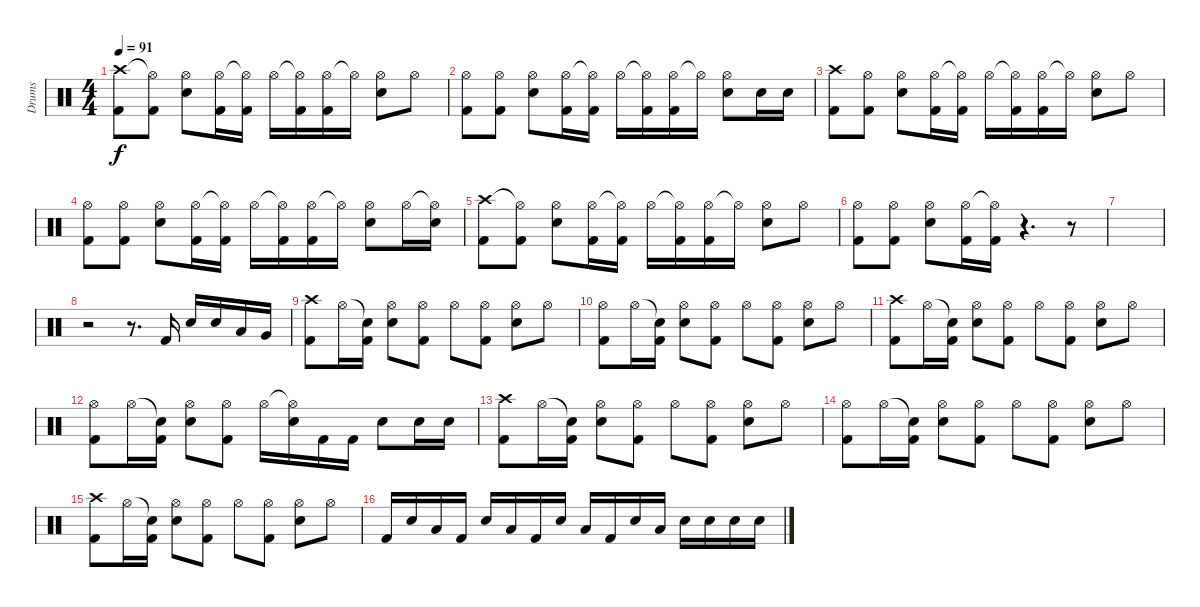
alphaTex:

\track ("Drums" "Drums") {instrument percussion}
\staff {score}
\articulation defaults
\ts (4 4)
\tempo 91
\clef neutral
\ks c
("Crash high (hit)" "Kick (hit) 2").8{dy f} ("Hi-Hat (open)"{t} "Kick (hit) 2").8 ("Hi-Hat (open)" "Electric Snare (hit)").8 ("Hi-Hat (open)" "Kick (hit) 2").16 ("Hi-Hat (open)"{t} "Kick (hit) 2").16 "Hi-Hat (open)".16 ("Hi-Hat (open)"{t} "Kick (hit) 2").16 ("Hi-Hat (open)" "Kick (hit) 2").16 "Hi-Hat (open)"{t}.16 ("Hi-Hat (open)" "Electric Snare (hit)").8 "Hi-Hat (open)".8 |
("Hi-Hat (open)" "Kick (hit) 2").8 ("Hi-Hat (open)" "Kick (hit) 2").8 ("Hi-Hat (open)" "Electric Snare (hit)").8 ("Hi-Hat (open)" "Kick (hit) 2").16 ("Hi-Hat (open)"{t} "Kick (hit) 2").16 "Hi-Hat (open)".16 ("Hi-Hat (open)"{t} "Kick (hit) 2").16 ("Hi-Hat (open)" "Kick (hit) 2").16 "Hi-Hat (open)"{t}.16 ("Hi-Hat (open)" "Electric Snare (hit)").8 "Electric Snare (hit)".16 "Electric Snare (hit)".16 |
("Crash high (hit)" "Kick (hit) 2").8 ("Hi-Hat (open)" "Kick (hit) 2").8 ("Hi-Hat (open)" "Electric Snare (hit)").8 ("Hi-Hat (open)" "Kick (hit) 2").16 ("Hi-Hat (open)"{t} "Kick (hit) 2").16 "Hi-Hat (open)".16 ("Hi-Hat (open)"{t} "Kick (hit) 2").16 ("Hi-Hat (open)" "Kick (hit) 2").16 "Hi-Hat (open)"{t}.16 ("Hi-Hat (open)" "Electric Snare (hit)").8 "Hi-Hat (open)".8 |
("Hi-Hat (open)" "Kick (hit) 2").8 ("Hi-Hat (open)" "Kick (hit) 2").8 ("Hi-Hat (open)" "Electric Snare (hit)").8 ("Hi-Hat (open)" "Kick (hit) 2").16 ("Hi-Hat (open)"{t} "Kick (hit) 2").16 "Hi-Hat (open)".16 ("Hi-Hat (open)"{t} "Kick (hit) 2").16 ("Hi-Hat (open)" "Kick (hit) 2").16 "Hi-Hat (open)"{t}.16 ("Hi-Hat (open)" "Electric Snare (hit)").8 "Hi-Hat (open)".16 ("Hi-Hat (open)"{t} "Electric Snare (hit)").16 |
("Crash high (hit)" "Kick (hit) 2").8 ("Hi-Hat (open)"{t} "Kick (hit) 2").8 ("Hi-Hat (open)" "Electric Snare (hit)").8 ("Hi-Hat (open)" "Kick (hit) 2").16 ("Hi-Hat (open)"{t} "Kick (hit) 2").16 "Hi-Hat (open)".16 ("Hi-Hat (open)"{t} "Kick (hit) 2").16 ("Hi-Hat (open)" "Kick (hit) 2").16 "Hi-Hat (open)"{t}.16 ("Hi-Hat (open)" "Electric Snare (hit)").8 "Hi-Hat (open)".8 |
("Hi-Hat (open)" "Kick (hit) 2").8 ("Hi-Hat (open)" "Kick (hit) 2").8 ("Hi-Hat (open)" "Electric Snare (hit)").8 ("Hi-Hat (open)" "Kick (hit) 2").16 ("Hi-Hat (open)"{t} "Kick (hit) 2").16 r.4{d} r.8 |
|
r.2 r.8{d} "Kick (hit) 2".16 "Electric Snare (hit)".16 "Electric Snare (hit)".16 "Low Tom (hit)".16 "Very Low Tom (hit)".16 |
("Crash high (hit)" "Kick (hit) 2").8 "Hi-Hat (open)".16 ("Snare (hit)"{t} "Kick (hit) 2").16 ("Hi-Hat (open)" "Electric Snare (hit)").8 ("Hi-Hat (open)" "Kick (hit) 2").8 "Hi-Hat (open)".8 ("Hi-Hat (open)" "Kick (hit) 2").8 ("Hi-Hat (open)" "Electric Snare (hit)").8 "Hi-Hat (open)".8 |
("Hi-Hat (open)" "Kick (hit) 2").8 "Hi-Hat (open)".16 ("Snare (hit)"{t} "Kick (hit) 2").16 ("Hi-Hat (open)" "Electric Snare (hit)").8 ("Hi-Hat (open)" "Kick (hit) 2").8 "Hi-Hat (open)".8 ("Hi-Hat (open)" "Kick (hit) 2").8 ("Hi-Hat (open)" "Electric Snare (hit)").8 "Hi-Hat (open)".8 |
("Crash high (hit)" "Kick (hit) 2").8 "Hi-Hat (open)".16 ("Snare (hit)"{t} "Kick (hit) 2").16 ("Hi-Hat (open)" "Electric Snare (hit)").8 ("Hi-Hat (open)" "Kick (hit) 2").8 "Hi-Hat (open)".8 ("Hi-Hat (open)" "Kick (hit) 2").8 ("Hi-Hat (open)" "Electric Snare (hit)").8 "Hi-Hat (open)".8 |
("Hi-Hat (open)" "Kick (hit) 2").8 "Hi-Hat (open)".16 ("Snare (hit)"{t} "Kick (hit) 2").16 ("Hi-Hat (open)" "Electric Snare (hit)").8 ("Hi-Hat (open)" "Kick (hit) 2").8 "Hi-Hat (open)".16 ("Hi-Hat (open)"{t} "Electric Snare (hit)").16 "Kick (hit) 2".16 "Kick (hit) 2".16 "Electric Snare (hit)".8 "Electric Snare (hit)".16 "Electric Snare (hit)".16 |
("Crash high (hit)" "Kick (hit) 2").8 "Hi-Hat (open)".16 ("Snare (hit)"{t} "Kick (hit) 2").16 ("Hi-Hat (open)" "Electric Snare (hit)").8 ("Hi-Hat (open)" "Kick (hit) 2").8 "Hi-Hat (open)".8 ("Hi-Hat (open)" "Kick (hit) 2").8 ("Hi-Hat (open)" "Electric Snare (hit)").8 "Hi-Hat (open)".8 |
("Hi-Hat (open)" "Kick (hit) 2").8 "Hi-Hat (open)".16 ("Snare (hit)"{t} "Kick (hit) 2").16 ("Hi-Hat (open)" "Electric Snare (hit)").8 ("Hi-Hat (open)" "Kick (hit) 2").8 "Hi-Hat (open)".8 ("Hi-Hat (open)" "Kick (hit) 2").8 ("Hi-Hat (open)" "Electric Snare (hit)").8 "Hi-Hat (open)".8 |
("Crash high (hit)" "Kick (hit) 2").8 "Hi-Hat (open)".16 ("Snare (hit)"{t} "Kick (hit) 2").16 ("Hi-Hat (open)" "Electric Snare (hit)").8 ("Hi-Hat (open)" "Kick (hit) 2").8 "Hi-Hat (open)".8 ("Hi-Hat (open)" "Kick (hit) 2").8 ("Hi-Hat (open)" "Electric Snare (hit)").8 "Hi-Hat (open)".8 |
"Kick (hit) 2".16 "Electric Snare (hit)".16 "Low Tom (hit)".16 "Kick (hit) 2".16 "Electric Snare (hit)".16 "Low Tom (hit)".16 "Kick (hit) 2".16 "Electric Snare (hit)".16 "Low Tom (hit)".16 "Kick (hit) 2".16 "Electric Snare (hit)".16 "Low Tom (hit)".16 "Electric Snare (hit)".16 "Electric Snare (hit)".16 "Electric Snare (hit)".16 "Electric Snare (hit)".16
